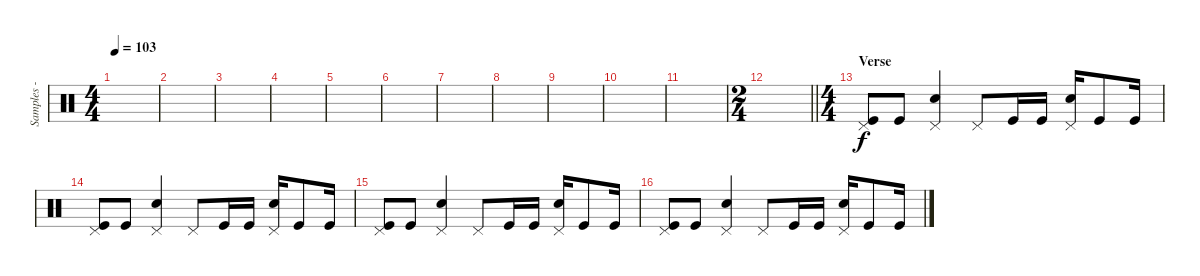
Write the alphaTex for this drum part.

\track ("Samples - Joe Hahn" "Samples - ") {instrument percussion}
\staff {score}
\articulation defaults
\ts (4 4)
\tempo 103
\clef neutral
\ks c
|
|
|
|
|
|
|
|
|
|
|
\ts (2 4)
\barLineRight lightlight
|
\ts (4 4)
\section ("" "Verse")
("Pedal Hi-Hat (hit)" "Kick (hit)").8{volume 12} "Kick (hit)".8 ("Pedal Hi-Hat (hit)" "Snare (hit) 2").4 "Pedal Hi-Hat (hit)".8 "Kick (hit)".16 "Kick (hit)".16 ("Pedal Hi-Hat (hit)" "Snare (hit) 2").16 "Kick (hit)".8 "Kick (hit)".16 |
("Pedal Hi-Hat (hit)" "Kick (hit)").8 "Kick (hit)".8 ("Pedal Hi-Hat (hit)" "Snare (hit) 2").4 "Pedal Hi-Hat (hit)".8 "Kick (hit)".16 "Kick (hit)".16 ("Pedal Hi-Hat (hit)" "Snare (hit) 2").16 "Kick (hit)".8 "Kick (hit)".16 |
("Pedal Hi-Hat (hit)" "Kick (hit)").8 "Kick (hit)".8 ("Pedal Hi-Hat (hit)" "Snare (hit) 2").4 "Pedal Hi-Hat (hit)".8 "Kick (hit)".16 "Kick (hit)".16 ("Pedal Hi-Hat (hit)" "Snare (hit) 2").16 "Kick (hit)".8 "Kick (hit)".16 |
("Pedal Hi-Hat (hit)" "Kick (hit)").8 "Kick (hit)".8 ("Pedal Hi-Hat (hit)" "Snare (hit) 2").4 "Pedal Hi-Hat (hit)".8 "Kick (hit)".16 "Kick (hit)".16 ("Pedal Hi-Hat (hit)" "Snare (hit) 2").16 "Kick (hit)".8 "Kick (hit)".16
